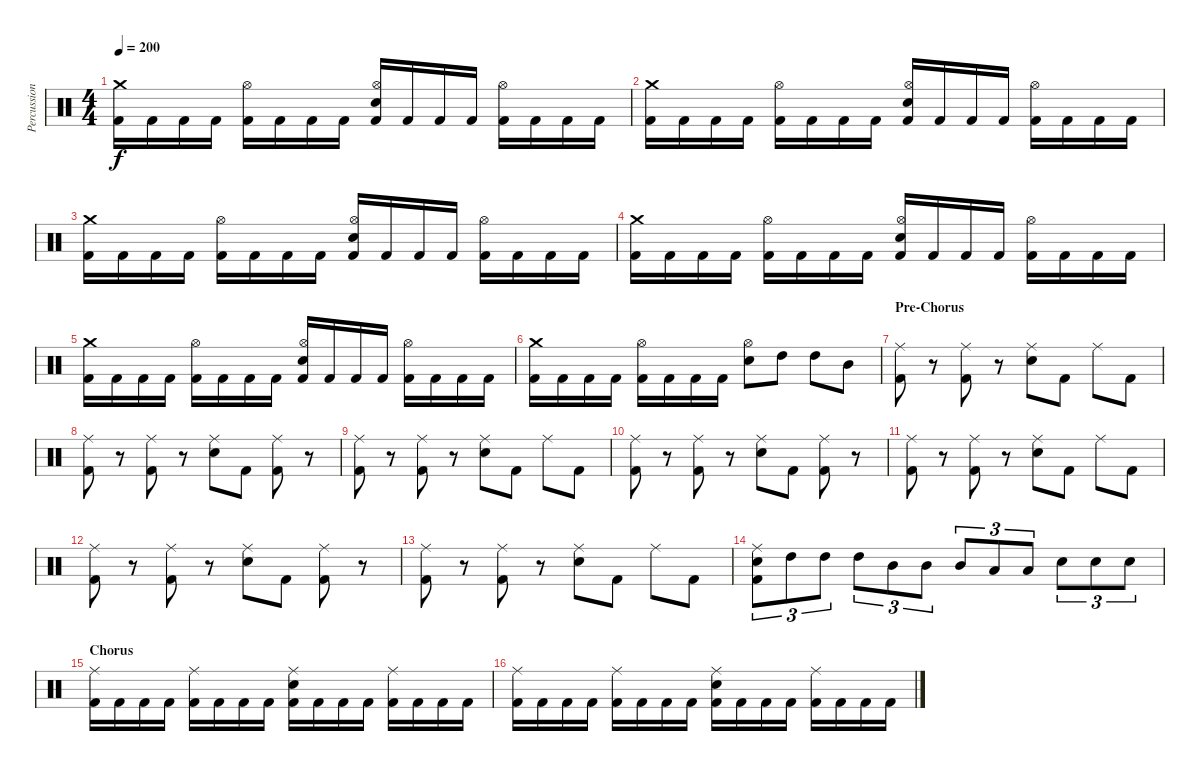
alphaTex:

\track ("Percussions" "Percussion") {instrument percussion}
\staff {score}
\articulation defaults
\ts (4 4)
\tempo 200
\clef neutral
\ks c
("Crash medium (hit)" "Kick (hit) 2").16{dy f} "Kick (hit) 2".16 "Kick (hit) 2".16 "Kick (hit) 2".16 ("Hi-Hat (open)" "Kick (hit) 2").16 "Kick (hit) 2".16 "Kick (hit) 2".16 "Kick (hit) 2".16 ("Hi-Hat (open)" "Electric Snare (hit)" "Kick (hit) 2").16 "Kick (hit) 2".16 "Kick (hit) 2".16 "Kick (hit) 2".16 ("Hi-Hat (open)" "Kick (hit) 2").16 "Kick (hit) 2".16 "Kick (hit) 2".16 "Kick (hit) 2".16 |
("Crash medium (hit)" "Kick (hit) 2").16 "Kick (hit) 2".16 "Kick (hit) 2".16 "Kick (hit) 2".16 ("Hi-Hat (open)" "Kick (hit) 2").16 "Kick (hit) 2".16 "Kick (hit) 2".16 "Kick (hit) 2".16 ("Hi-Hat (open)" "Electric Snare (hit)" "Kick (hit) 2").16 "Kick (hit) 2".16 "Kick (hit) 2".16 "Kick (hit) 2".16 ("Hi-Hat (open)" "Kick (hit) 2").16 "Kick (hit) 2".16 "Kick (hit) 2".16 "Kick (hit) 2".16 |
("Crash medium (hit)" "Kick (hit) 2").16 "Kick (hit) 2".16 "Kick (hit) 2".16 "Kick (hit) 2".16 ("Hi-Hat (open)" "Kick (hit) 2").16 "Kick (hit) 2".16 "Kick (hit) 2".16 "Kick (hit) 2".16 ("Hi-Hat (open)" "Electric Snare (hit)" "Kick (hit) 2").16 "Kick (hit) 2".16 "Kick (hit) 2".16 "Kick (hit) 2".16 ("Hi-Hat (open)" "Kick (hit) 2").16 "Kick (hit) 2".16 "Kick (hit) 2".16 "Kick (hit) 2".16 |
("Crash medium (hit)" "Kick (hit) 2").16 "Kick (hit) 2".16 "Kick (hit) 2".16 "Kick (hit) 2".16 ("Hi-Hat (open)" "Kick (hit) 2").16 "Kick (hit) 2".16 "Kick (hit) 2".16 "Kick (hit) 2".16 ("Hi-Hat (open)" "Electric Snare (hit)" "Kick (hit) 2").16 "Kick (hit) 2".16 "Kick (hit) 2".16 "Kick (hit) 2".16 ("Hi-Hat (open)" "Kick (hit) 2").16 "Kick (hit) 2".16 "Kick (hit) 2".16 "Kick (hit) 2".16 |
("Crash medium (hit)" "Kick (hit) 2").16 "Kick (hit) 2".16 "Kick (hit) 2".16 "Kick (hit) 2".16 ("Hi-Hat (open)" "Kick (hit) 2").16 "Kick (hit) 2".16 "Kick (hit) 2".16 "Kick (hit) 2".16 ("Hi-Hat (open)" "Electric Snare (hit)" "Kick (hit) 2").16 "Kick (hit) 2".16 "Kick (hit) 2".16 "Kick (hit) 2".16 ("Hi-Hat (open)" "Kick (hit) 2").16 "Kick (hit) 2".16 "Kick (hit) 2".16 "Kick (hit) 2".16 |
("Crash medium (hit)" "Kick (hit) 2").16 "Kick (hit) 2".16 "Kick (hit) 2".16 "Kick (hit) 2".16 ("Hi-Hat (open)" "Kick (hit) 2").16 "Kick (hit) 2".16 "Kick (hit) 2".16 "Kick (hit) 2".16 ("Hi-Hat (open)" "Electric Snare (hit)").8 "High Tom (hit)".8 "High Tom (hit)".8 "Mid Tom (hit)".8 |
\section ("" "Pre-Chorus")
("Ride (middle)" "Kick (hit) 2").8 r.8 ("Ride (middle)" "Kick (hit) 2").8 r.8 ("Ride (middle)" "Electric Snare (hit)").8 "Kick (hit) 2".8 "Ride (middle)".8 "Kick (hit) 2".8 |
("Ride (middle)" "Kick (hit) 2").8 r.8 ("Ride (middle)" "Kick (hit) 2").8 r.8 ("Ride (middle)" "Electric Snare (hit)").8 "Kick (hit) 2".8 ("Ride (middle)" "Kick (hit) 2").8 r.8 |
("Ride (middle)" "Kick (hit) 2").8 r.8 ("Ride (middle)" "Kick (hit) 2").8 r.8 ("Ride (middle)" "Electric Snare (hit)").8 "Kick (hit) 2".8 "Ride (middle)".8 "Kick (hit) 2".8 |
("Ride (middle)" "Kick (hit) 2").8 r.8 ("Ride (middle)" "Kick (hit) 2").8 r.8 ("Ride (middle)" "Electric Snare (hit)").8 "Kick (hit) 2".8 ("Ride (middle)" "Kick (hit) 2").8 r.8 |
("Ride (middle)" "Kick (hit) 2").8 r.8 ("Ride (middle)" "Kick (hit) 2").8 r.8 ("Ride (middle)" "Electric Snare (hit)").8 "Kick (hit) 2".8 "Ride (middle)".8 "Kick (hit) 2".8 |
("Ride (middle)" "Kick (hit) 2").8 r.8 ("Ride (middle)" "Kick (hit) 2").8 r.8 ("Ride (middle)" "Electric Snare (hit)").8 "Kick (hit) 2".8 ("Ride (middle)" "Kick (hit) 2").8 r.8 |
("Ride (middle)" "Kick (hit) 2").8 r.8 ("Ride (middle)" "Kick (hit) 2").8 r.8 ("Ride (middle)" "Electric Snare (hit)").8 "Kick (hit) 2".8 "Ride (middle)".8 "Kick (hit) 2".8 |
("Ride (middle)" "Electric Snare (hit)" "Kick (hit) 2").8{tu (3 2)} "High Tom (hit)".8{tu (3 2)} "High Tom (hit)".8{tu (3 2)} "High Tom (hit)".8{tu (3 2)} "Mid Tom (hit)".8{tu (3 2)} "Mid Tom (hit)".8{tu (3 2)} "Mid Tom (hit)".8{tu (3 2)} "Low Tom (hit)".8{tu (3 2)} "Low Tom (hit)".8{tu (3 2)} "Electric Snare (hit)".8{tu (3 2)} "Electric Snare (hit)".8{tu (3 2)} "Electric Snare (hit)".8{tu (3 2)} |
\section ("" "Chorus")
("Ride (middle)" "Kick (hit) 2").16 "Kick (hit) 2".16 "Kick (hit) 2".16 "Kick (hit) 2".16 ("Ride (middle)" "Kick (hit) 2").16 "Kick (hit) 2".16 "Kick (hit) 2".16 "Kick (hit) 2".16 ("Ride (middle)" "Electric Snare (hit)" "Kick (hit) 2").16 "Kick (hit) 2".16 "Kick (hit) 2".16 "Kick (hit) 2".16 ("Ride (middle)" "Kick (hit) 2").16 "Kick (hit) 2".16 "Kick (hit) 2".16 "Kick (hit) 2".16 |
("Ride (middle)" "Kick (hit) 2").16 "Kick (hit) 2".16 "Kick (hit) 2".16 "Kick (hit) 2".16 ("Ride (middle)" "Kick (hit) 2").16 "Kick (hit) 2".16 "Kick (hit) 2".16 "Kick (hit) 2".16 ("Ride (middle)" "Electric Snare (hit)" "Kick (hit) 2").16 "Kick (hit) 2".16 "Kick (hit) 2".16 "Kick (hit) 2".16 ("Ride (middle)" "Kick (hit) 2").16 "Kick (hit) 2".16 "Kick (hit) 2".16 "Kick (hit) 2".16
